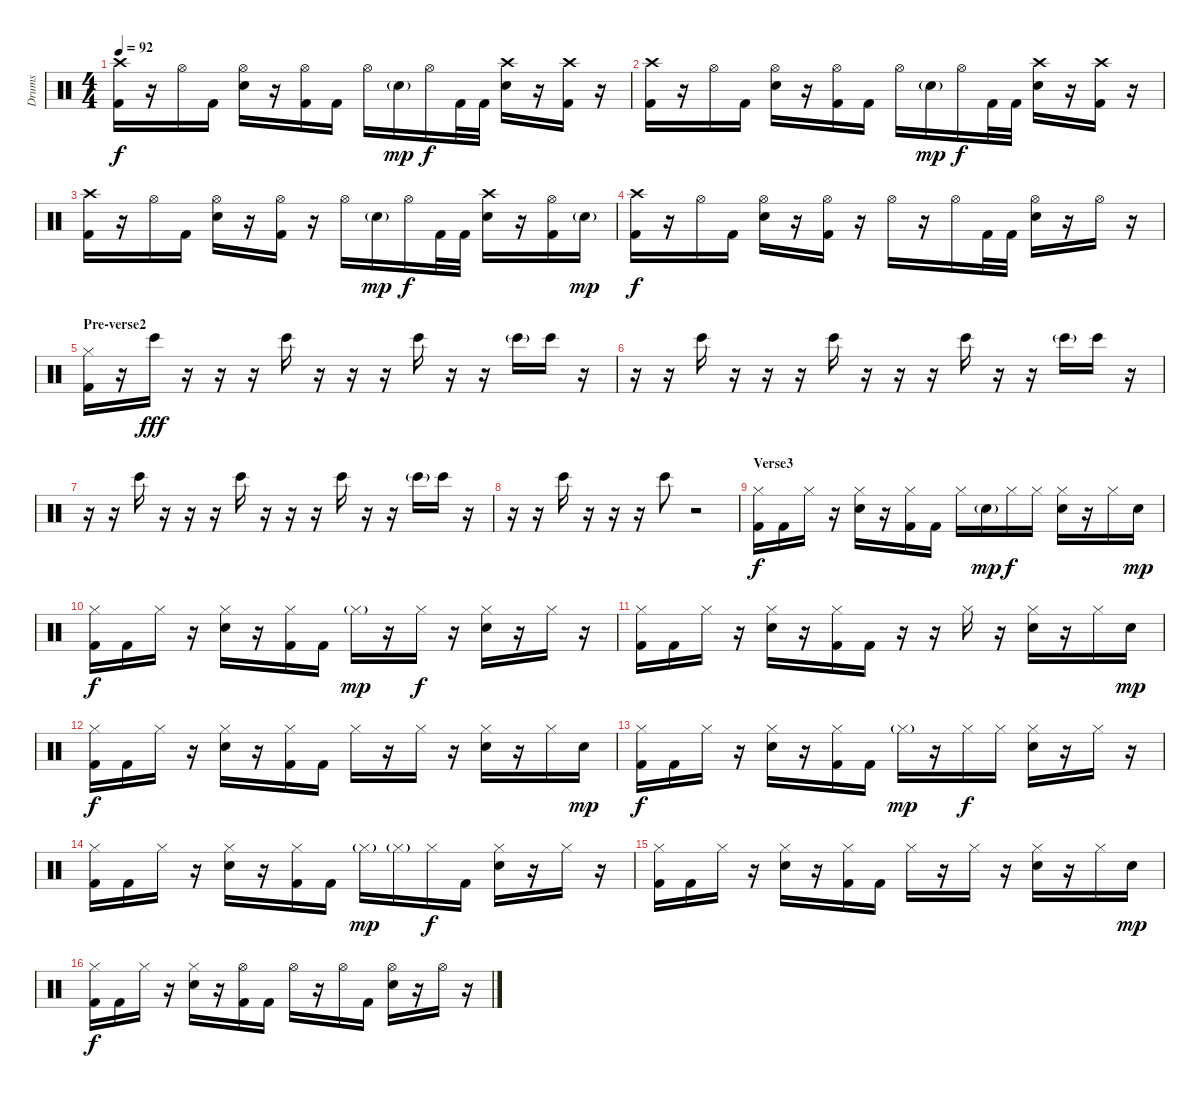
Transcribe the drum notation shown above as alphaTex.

\track ("Drums" "Drums") {instrument percussion}
\staff {score}
\articulation defaults
\ts (4 4)
\tempo 92
\clef neutral
\ks c
("Crash high (hit)" "Kick (hit) 2").16{dy f} r.16 "Hi-Hat (open)".16 "Kick (hit) 2".16 ("Hi-Hat (open)" "Snare (hit) 2").16 r.16 ("Hi-Hat (open)" "Kick (hit) 2").16 "Kick (hit) 2".16 "Hi-Hat (open)".16 "Snare (hit) 2"{g}.16{dy mp} "Hi-Hat (open)".16{dy f} "Kick (hit) 2".32 "Kick (hit) 2".32 ("Crash high (hit)" "Snare (hit) 2").16 r.16 ("Crash high (hit)" "Kick (hit) 2").16 r.16 |
("Crash high (hit)" "Kick (hit) 2").16 r.16 "Hi-Hat (open)".16 "Kick (hit) 2".16 ("Hi-Hat (open)" "Snare (hit) 2").16 r.16 ("Hi-Hat (open)" "Kick (hit) 2").16 "Kick (hit) 2".16 "Hi-Hat (open)".16 "Snare (hit) 2"{g}.16{dy mp} "Hi-Hat (open)".16{dy f} "Kick (hit) 2".32 "Kick (hit) 2".32 ("Crash high (hit)" "Snare (hit) 2").16 r.16 ("Crash high (hit)" "Kick (hit) 2").16 r.16 |
("Crash high (hit)" "Kick (hit) 2").16 r.16 "Hi-Hat (open)".16 "Kick (hit) 2".16 ("Hi-Hat (open)" "Snare (hit) 2").16 r.16 ("Hi-Hat (open)" "Kick (hit) 2").16 r.16 "Hi-Hat (open)".16 "Snare (hit) 2"{g}.16{dy mp} "Hi-Hat (open)".16{dy f} "Kick (hit) 2".32 "Kick (hit) 2".32 ("Crash high (hit)" "Snare (hit) 2").16 r.16 ("Hi-Hat (open)" "Kick (hit) 2").16 "Snare (hit) 2"{g}.16{dy mp} |
("Crash high (hit)" "Kick (hit) 2").16{dy f} r.16 "Hi-Hat (open)".16 "Kick (hit) 2".16 ("Hi-Hat (open)" "Snare (hit) 2").16 r.16 ("Hi-Hat (open)" "Kick (hit) 2").16 r.16 "Hi-Hat (open)".16 r.16 "Hi-Hat (open)".16 "Kick (hit) 2".32 "Kick (hit) 2".32 ("Hi-Hat (open)" "Snare (hit) 2").16 r.16 "Hi-Hat (open)".16 r.16 |
\section ("" "Pre-verse2")
("Hi-Hat (closed)" "Kick (hit) 2").16 r.16 "Bongo High (hit)".16{dy fff} r.16 r.16 r.16 "Bongo High (hit)".16 r.16 r.16 r.16 "Bongo High (hit)".16 r.16 r.16 "Bongo High (hit)"{g}.16 "Bongo High (hit)".16 r.16 |
r.16 r.16 "Bongo High (hit)".16 r.16 r.16 r.16 "Bongo High (hit)".16 r.16 r.16 r.16 "Bongo High (hit)".16 r.16 r.16 "Bongo High (hit)"{g}.16 "Bongo High (hit)".16 r.16 |
r.16 r.16 "Bongo High (hit)".16 r.16 r.16 r.16 "Bongo High (hit)".16 r.16 r.16 r.16 "Bongo High (hit)".16 r.16 r.16 "Bongo High (hit)"{g}.16 "Bongo High (hit)".16 r.16 |
r.16 r.16 "Bongo High (hit)".16 r.16 r.16 r.16 "Bongo High (hit)".8 r.2 |
\section ("" "Verse3")
("Hi-Hat (closed)" "Kick (hit) 2").16{dy f} "Kick (hit) 2".16 "Hi-Hat (closed)".16 r.16 ("Hi-Hat (closed)" "Snare (hit) 2").16 r.16 ("Hi-Hat (closed)" "Kick (hit) 2").16 "Kick (hit) 2".16 "Hi-Hat (closed)".16 "Snare (hit) 2"{g}.16{dy mp} "Hi-Hat (closed)".16{dy f} "Hi-Hat (closed)".16 ("Hi-Hat (closed)" "Snare (hit) 2").16 r.16 "Hi-Hat (closed)".16 "Snare (hit) 2".16{dy mp} |
("Hi-Hat (closed)" "Kick (hit) 2").16{dy f} "Kick (hit) 2".16 "Hi-Hat (closed)".16 r.16 ("Hi-Hat (closed)" "Snare (hit) 2").16 r.16 ("Hi-Hat (closed)" "Kick (hit) 2").16 "Kick (hit) 2".16 "Hi-Hat (closed)"{g}.16{dy mp} r.16 "Hi-Hat (closed)".16{dy f} r.16 ("Hi-Hat (closed)" "Snare (hit) 2").16 r.16 "Hi-Hat (closed)".16 r.16 |
("Hi-Hat (closed)" "Kick (hit) 2").16 "Kick (hit) 2".16 "Hi-Hat (closed)".16 r.16 ("Hi-Hat (closed)" "Snare (hit) 2").16 r.16 ("Hi-Hat (closed)" "Kick (hit) 2").16 "Kick (hit) 2".16 r.16 r.16 "Hi-Hat (closed)".16 r.16 ("Hi-Hat (closed)" "Snare (hit) 2").16 r.16 "Hi-Hat (closed)".16 "Snare (hit) 2".16{dy mp} |
("Hi-Hat (closed)" "Kick (hit) 2").16{dy f} "Kick (hit) 2".16 "Hi-Hat (closed)".16 r.16 ("Hi-Hat (closed)" "Snare (hit) 2").16 r.16 ("Hi-Hat (closed)" "Kick (hit) 2").16 "Kick (hit) 2".16 "Hi-Hat (closed)".16 r.16 "Hi-Hat (closed)".16 r.16 ("Hi-Hat (closed)" "Snare (hit) 2").16 r.16 "Hi-Hat (closed)".16 "Snare (hit) 2".16{dy mp} |
("Hi-Hat (closed)" "Kick (hit) 2").16{dy f} "Kick (hit) 2".16 "Hi-Hat (closed)".16 r.16 ("Hi-Hat (closed)" "Snare (hit) 2").16 r.16 ("Hi-Hat (closed)" "Kick (hit) 2").16 "Kick (hit) 2".16 "Hi-Hat (closed)"{g}.16{dy mp} r.16 "Hi-Hat (closed)".16{dy f} "Hi-Hat (closed)".16 ("Hi-Hat (closed)" "Snare (hit) 2").16 r.16 "Hi-Hat (closed)".16 r.16 |
("Hi-Hat (closed)" "Kick (hit) 2").16 "Kick (hit) 2".16 "Hi-Hat (closed)".16 r.16 ("Hi-Hat (closed)" "Snare (hit) 2").16 r.16 ("Hi-Hat (closed)" "Kick (hit) 2").16 "Kick (hit) 2".16 "Hi-Hat (closed)"{g}.16{dy mp} "Hi-Hat (closed)"{g}.16 "Hi-Hat (closed)".16{dy f} "Kick (hit) 2".16 ("Hi-Hat (closed)" "Snare (hit) 2").16 r.16 "Hi-Hat (closed)".16 r.16 |
("Hi-Hat (closed)" "Kick (hit) 2").16 "Kick (hit) 2".16 "Hi-Hat (closed)".16 r.16 ("Hi-Hat (closed)" "Snare (hit) 2").16 r.16 ("Hi-Hat (closed)" "Kick (hit) 2").16 "Kick (hit) 2".16 "Hi-Hat (closed)".16 r.16 "Hi-Hat (closed)".16 r.16 ("Hi-Hat (closed)" "Snare (hit) 2").16 r.16 "Hi-Hat (closed)".16 "Snare (hit) 2".16{dy mp} |
("Hi-Hat (closed)" "Kick (hit) 2").16{dy f} "Kick (hit) 2".16 "Hi-Hat (closed)".16 r.16 ("Hi-Hat (closed)" "Snare (hit) 2").16 r.16 ("Hi-Hat (open)" "Kick (hit) 2").16 "Kick (hit) 2".16 "Hi-Hat (open)".16 r.16 "Hi-Hat (open)".16 "Kick (hit) 2".16 ("Hi-Hat (open)" "Snare (hit) 2").16 r.16 "Hi-Hat (open)".16 r.16
